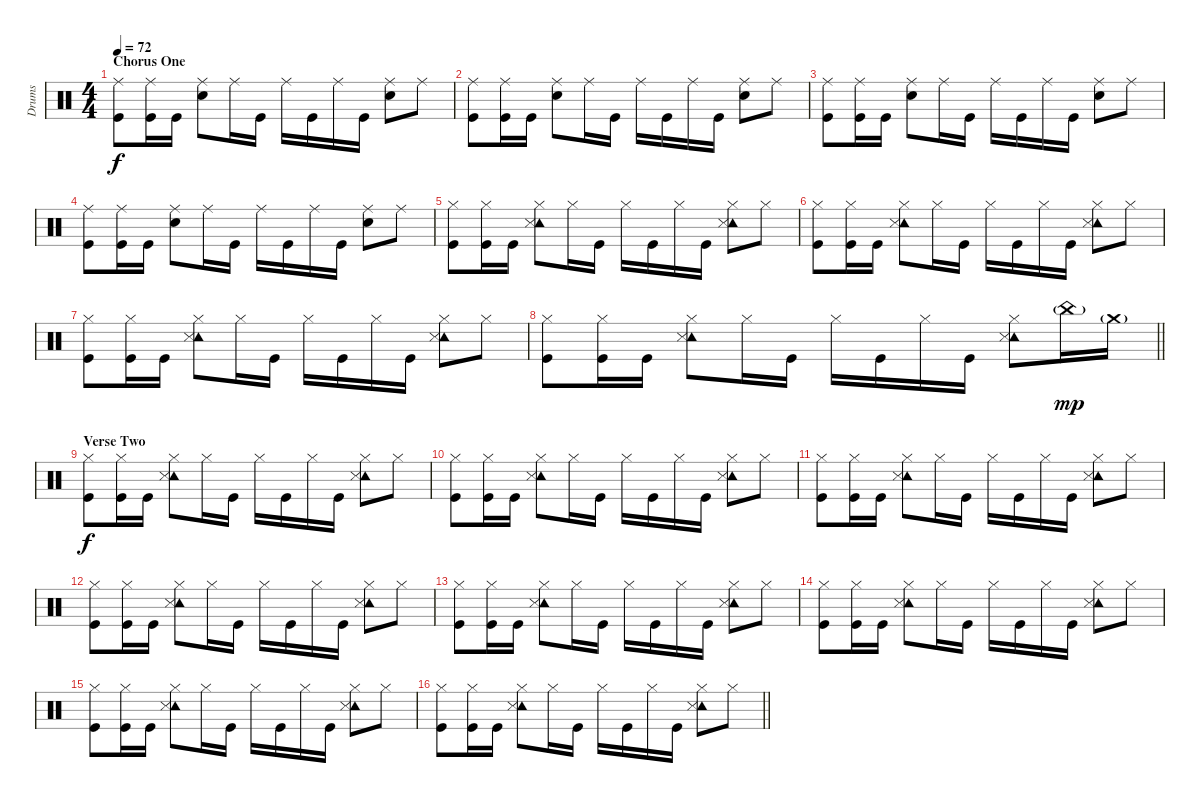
\track ("Drums" "Drums") {instrument percussion}
\staff {score}
\articulation defaults
\ts (4 4)
\section ("" "Chorus One")
\tempo 72
\clef neutral
\ks c
("Ride (middle)" "Kick (hit)").8{dy f} ("Ride (middle)" "Kick (hit)").16 "Kick (hit)".16 ("Ride (middle)" "Snare (hit) 2").8 "Ride (middle)".16 "Kick (hit)".16 "Ride (middle)".16 "Kick (hit)".16 "Ride (middle)".16 "Kick (hit)".16 ("Ride (middle)" "Snare (hit) 2").8 "Ride (middle)".8 |
("Ride (middle)" "Kick (hit)").8 ("Ride (middle)" "Kick (hit)").16 "Kick (hit)".16 ("Ride (middle)" "Snare (hit) 2").8 "Ride (middle)".16 "Kick (hit)".16 "Ride (middle)".16 "Kick (hit)".16 "Ride (middle)".16 "Kick (hit)".16 ("Ride (middle)" "Snare (hit) 2").8 "Ride (middle)".8 |
("Ride (middle)" "Kick (hit)").8 ("Ride (middle)" "Kick (hit)").16 "Kick (hit)".16 ("Ride (middle)" "Snare (hit) 2").8 "Ride (middle)".16 "Kick (hit)".16 "Ride (middle)".16 "Kick (hit)".16 "Ride (middle)".16 "Kick (hit)".16 ("Ride (middle)" "Snare (hit) 2").8 "Ride (middle)".8 |
("Ride (middle)" "Kick (hit)").8 ("Ride (middle)" "Kick (hit)").16 "Kick (hit)".16 ("Ride (middle)" "Snare (hit) 2").8 "Ride (middle)".16 "Kick (hit)".16 "Ride (middle)".16 "Kick (hit)".16 "Ride (middle)".16 "Kick (hit)".16 ("Ride (middle)" "Snare (hit) 2").8 "Ride (middle)".8 |
("Hi-Hat (closed)" "Kick (hit)").8 ("Hi-Hat (closed)" "Kick (hit)").16 "Kick (hit)".16 ("Tambourine (hit)" "Hi-Hat (closed)" "Snare (side stick) 3").8 "Hi-Hat (closed)".16 "Kick (hit)".16 "Hi-Hat (closed)".16 "Kick (hit)".16 "Hi-Hat (closed)".16 "Kick (hit)".16 ("Tambourine (hit)" "Hi-Hat (closed)" "Snare (side stick) 3").8 "Hi-Hat (closed)".8 |
("Hi-Hat (closed)" "Kick (hit)").8 ("Hi-Hat (closed)" "Kick (hit)").16 "Kick (hit)".16 ("Tambourine (hit)" "Hi-Hat (closed)" "Snare (side stick) 3").8 "Hi-Hat (closed)".16 "Kick (hit)".16 "Hi-Hat (closed)".16 "Kick (hit)".16 "Hi-Hat (closed)".16 "Kick (hit)".16 ("Tambourine (hit)" "Hi-Hat (closed)" "Snare (side stick) 3").8 "Hi-Hat (closed)".8 |
("Hi-Hat (closed)" "Kick (hit)").8 ("Hi-Hat (closed)" "Kick (hit)").16 "Kick (hit)".16 ("Tambourine (hit)" "Hi-Hat (closed)" "Snare (side stick) 3").8 "Hi-Hat (closed)".16 "Kick (hit)".16 "Hi-Hat (closed)".16 "Kick (hit)".16 "Hi-Hat (closed)".16 "Kick (hit)".16 ("Tambourine (hit)" "Hi-Hat (closed)" "Snare (side stick) 3").8 "Hi-Hat (closed)".8 |
\barLineRight lightlight
("Hi-Hat (closed)" "Kick (hit)").8 ("Hi-Hat (closed)" "Kick (hit)").16 "Kick (hit)".16 ("Tambourine (hit)" "Hi-Hat (closed)" "Snare (side stick) 3").8 "Hi-Hat (closed)".16 "Kick (hit)".16 "Hi-Hat (closed)".16 "Kick (hit)".16 "Hi-Hat (closed)".16 "Kick (hit)".16 ("Tambourine (hit)" "Hi-Hat (closed)" "Snare (side stick) 3").8 "China (hit)"{g}.16{dy mp} "Crash medium (hit)"{g}.16 |
\section ("" "Verse Two")
("Hi-Hat (closed)" "Kick (hit)").8{dy f} ("Hi-Hat (closed)" "Kick (hit)").16 "Kick (hit)".16 ("Tambourine (hit)" "Hi-Hat (closed)" "Snare (side stick) 3").8 "Hi-Hat (closed)".16 "Kick (hit)".16 "Hi-Hat (closed)".16 "Kick (hit)".16 "Hi-Hat (closed)".16 "Kick (hit)".16 ("Tambourine (hit)" "Hi-Hat (closed)" "Snare (side stick) 3").8 "Hi-Hat (closed)".8 |
("Hi-Hat (closed)" "Kick (hit)").8 ("Hi-Hat (closed)" "Kick (hit)").16 "Kick (hit)".16 ("Tambourine (hit)" "Hi-Hat (closed)" "Snare (side stick) 3").8 "Hi-Hat (closed)".16 "Kick (hit)".16 "Hi-Hat (closed)".16 "Kick (hit)".16 "Hi-Hat (closed)".16 "Kick (hit)".16 ("Tambourine (hit)" "Hi-Hat (closed)" "Snare (side stick) 3").8 "Hi-Hat (closed)".8 |
("Hi-Hat (closed)" "Kick (hit)").8 ("Hi-Hat (closed)" "Kick (hit)").16 "Kick (hit)".16 ("Tambourine (hit)" "Hi-Hat (closed)" "Snare (side stick) 3").8 "Hi-Hat (closed)".16 "Kick (hit)".16 "Hi-Hat (closed)".16 "Kick (hit)".16 "Hi-Hat (closed)".16 "Kick (hit)".16 ("Tambourine (hit)" "Hi-Hat (closed)" "Snare (side stick) 3").8 "Hi-Hat (closed)".8 |
("Hi-Hat (closed)" "Kick (hit)").8 ("Hi-Hat (closed)" "Kick (hit)").16 "Kick (hit)".16 ("Tambourine (hit)" "Hi-Hat (closed)" "Snare (side stick) 3").8 "Hi-Hat (closed)".16 "Kick (hit)".16 "Hi-Hat (closed)".16 "Kick (hit)".16 "Hi-Hat (closed)".16 "Kick (hit)".16 ("Tambourine (hit)" "Hi-Hat (closed)" "Snare (side stick) 3").8 "Hi-Hat (closed)".8 |
("Hi-Hat (closed)" "Kick (hit)").8 ("Hi-Hat (closed)" "Kick (hit)").16 "Kick (hit)".16 ("Tambourine (hit)" "Hi-Hat (closed)" "Snare (side stick) 3").8 "Hi-Hat (closed)".16 "Kick (hit)".16 "Hi-Hat (closed)".16 "Kick (hit)".16 "Hi-Hat (closed)".16 "Kick (hit)".16 ("Tambourine (hit)" "Hi-Hat (closed)" "Snare (side stick) 3").8 "Hi-Hat (closed)".8 |
("Hi-Hat (closed)" "Kick (hit)").8 ("Hi-Hat (closed)" "Kick (hit)").16 "Kick (hit)".16 ("Tambourine (hit)" "Hi-Hat (closed)" "Snare (side stick) 3").8 "Hi-Hat (closed)".16 "Kick (hit)".16 "Hi-Hat (closed)".16 "Kick (hit)".16 "Hi-Hat (closed)".16 "Kick (hit)".16 ("Tambourine (hit)" "Hi-Hat (closed)" "Snare (side stick) 3").8 "Hi-Hat (closed)".8 |
("Hi-Hat (closed)" "Kick (hit)").8 ("Hi-Hat (closed)" "Kick (hit)").16 "Kick (hit)".16 ("Tambourine (hit)" "Hi-Hat (closed)" "Snare (side stick) 3").8 "Hi-Hat (closed)".16 "Kick (hit)".16 "Hi-Hat (closed)".16 "Kick (hit)".16 "Hi-Hat (closed)".16 "Kick (hit)".16 ("Tambourine (hit)" "Hi-Hat (closed)" "Snare (side stick) 3").8 "Hi-Hat (closed)".8 |
\barLineRight lightlight
("Hi-Hat (closed)" "Kick (hit)").8 ("Hi-Hat (closed)" "Kick (hit)").16 "Kick (hit)".16 ("Tambourine (hit)" "Hi-Hat (closed)" "Snare (side stick) 3").8 "Hi-Hat (closed)".16 "Kick (hit)".16 "Hi-Hat (closed)".16 "Kick (hit)".16 "Hi-Hat (closed)".16 "Kick (hit)".16 ("Tambourine (hit)" "Hi-Hat (closed)" "Snare (side stick) 3").8 "Hi-Hat (closed)".8
